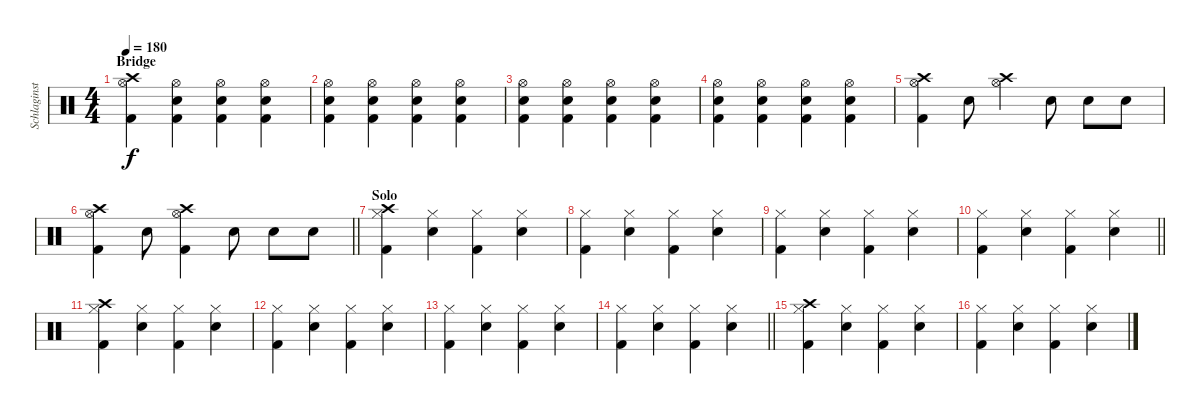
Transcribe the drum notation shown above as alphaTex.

\track ("Schlaginstrumente - Auswahl" "Schlaginst") {instrument percussion}
\staff {score}
\articulation defaults
\ts (4 4)
\section ("" "Bridge")
\tempo 180
\clef neutral
\ks c
("Crash high (hit)" "Hi-Hat (open)" "Kick (hit) 2").4{dy f} ("Hi-Hat (open)" "Electric Snare (hit)" "Kick (hit) 2").4 ("Hi-Hat (open)" "Electric Snare (hit)" "Kick (hit) 2").4 ("Hi-Hat (open)" "Electric Snare (hit)" "Kick (hit) 2").4 |
("Hi-Hat (open)" "Electric Snare (hit)" "Kick (hit) 2").4 ("Hi-Hat (open)" "Electric Snare (hit)" "Kick (hit) 2").4 ("Hi-Hat (open)" "Electric Snare (hit)" "Kick (hit) 2").4 ("Hi-Hat (open)" "Electric Snare (hit)" "Kick (hit) 2").4 |
("Hi-Hat (open)" "Electric Snare (hit)" "Kick (hit) 2").4 ("Hi-Hat (open)" "Electric Snare (hit)" "Kick (hit) 2").4 ("Hi-Hat (open)" "Electric Snare (hit)" "Kick (hit) 2").4 ("Hi-Hat (open)" "Electric Snare (hit)" "Kick (hit) 2").4 |
("Hi-Hat (open)" "Electric Snare (hit)" "Kick (hit) 2").4 ("Hi-Hat (open)" "Electric Snare (hit)" "Kick (hit) 2").4 ("Hi-Hat (open)" "Electric Snare (hit)" "Kick (hit) 2").4 ("Hi-Hat (open)" "Electric Snare (hit)" "Kick (hit) 2").4 |
("Crash high (hit)" "Hi-Hat (open)" "Kick (hit) 2").4 "Electric Snare (hit)".8 ("Crash high (hit)" "Hi-Hat (open)").4 "Electric Snare (hit)".8 "Electric Snare (hit)".8 "Electric Snare (hit)".8 |
\barLineRight lightlight
("Crash high (hit)" "Hi-Hat (open)" "Kick (hit) 2").4 "Electric Snare (hit)".8 ("Crash high (hit)" "Hi-Hat (open)" "Kick (hit) 2").4 "Electric Snare (hit)".8 "Electric Snare (hit)".8 "Electric Snare (hit)".8 |
\section ("" "Solo")
("Crash high (hit)" "Hi-Hat (closed)" "Kick (hit) 2").4 ("Hi-Hat (closed)" "Electric Snare (hit)").4 ("Hi-Hat (closed)" "Kick (hit) 2").4 ("Hi-Hat (closed)" "Electric Snare (hit)").4 |
("Hi-Hat (closed)" "Kick (hit) 2").4 ("Hi-Hat (closed)" "Electric Snare (hit)").4 ("Hi-Hat (closed)" "Kick (hit) 2").4 ("Hi-Hat (closed)" "Electric Snare (hit)").4 |
("Hi-Hat (closed)" "Kick (hit) 2").4 ("Hi-Hat (closed)" "Electric Snare (hit)").4 ("Hi-Hat (closed)" "Kick (hit) 2").4 ("Hi-Hat (closed)" "Electric Snare (hit)").4 |
\barLineRight lightlight
("Hi-Hat (closed)" "Kick (hit) 2").4 ("Hi-Hat (closed)" "Electric Snare (hit)").4 ("Hi-Hat (closed)" "Kick (hit) 2").4 ("Hi-Hat (closed)" "Electric Snare (hit)").4 |
("Crash high (hit)" "Hi-Hat (closed)" "Kick (hit) 2").4 ("Hi-Hat (closed)" "Electric Snare (hit)").4 ("Hi-Hat (closed)" "Kick (hit) 2").4 ("Hi-Hat (closed)" "Electric Snare (hit)").4 |
("Hi-Hat (closed)" "Kick (hit) 2").4 ("Hi-Hat (closed)" "Electric Snare (hit)").4 ("Hi-Hat (closed)" "Kick (hit) 2").4 ("Hi-Hat (closed)" "Electric Snare (hit)").4 |
("Hi-Hat (closed)" "Kick (hit) 2").4 ("Hi-Hat (closed)" "Electric Snare (hit)").4 ("Hi-Hat (closed)" "Kick (hit) 2").4 ("Hi-Hat (closed)" "Electric Snare (hit)").4 |
\barLineRight lightlight
("Hi-Hat (closed)" "Kick (hit) 2").4 ("Hi-Hat (closed)" "Electric Snare (hit)").4 ("Hi-Hat (closed)" "Kick (hit) 2").4 ("Hi-Hat (closed)" "Electric Snare (hit)").4 |
("Crash high (hit)" "Hi-Hat (closed)" "Kick (hit) 2").4 ("Hi-Hat (closed)" "Electric Snare (hit)").4 ("Hi-Hat (closed)" "Kick (hit) 2").4 ("Hi-Hat (closed)" "Electric Snare (hit)").4 |
("Hi-Hat (closed)" "Kick (hit) 2").4 ("Hi-Hat (closed)" "Electric Snare (hit)").4 ("Hi-Hat (closed)" "Kick (hit) 2").4 ("Hi-Hat (closed)" "Electric Snare (hit)").4
